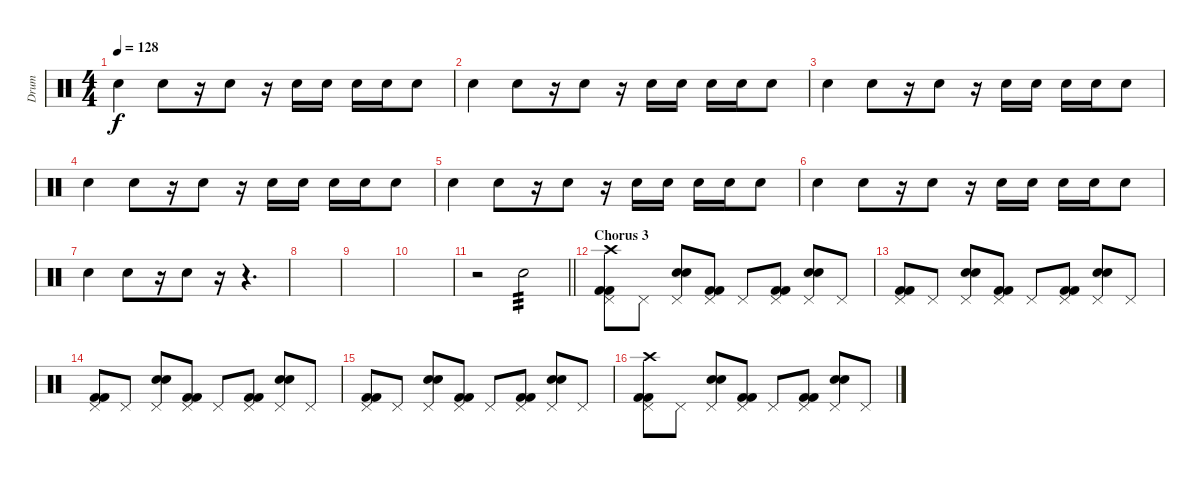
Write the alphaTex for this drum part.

\track ("Drum" "Drum") {instrument percussion}
\staff {score}
\articulation defaults
\ts (4 4)
\tempo 128
\clef neutral
\ks c "Hand Clap (hit)".4{dy f} "Hand Clap (hit)".8
r.16 "Hand Clap (hit)".8 r.16 "Hand Clap (hit)".16 "Hand Clap (hit)".16 "Hand Clap (hit)".16 "Hand Clap (hit)".16 "Hand Clap (hit)".8 |
"Hand Clap (hit)".4 "Hand Clap (hit)".8 r.16 "Hand Clap (hit)".8 r.16 "Hand Clap (hit)".16 "Hand Clap (hit)".16 "Hand Clap (hit)".16 "Hand Clap (hit)".16 "Hand Clap (hit)".8 |
"Hand Clap (hit)".4 "Hand Clap (hit)".8 r.16 "Hand Clap (hit)".8 r.16 "Hand Clap (hit)".16 "Hand Clap (hit)".16 "Hand Clap (hit)".16 "Hand Clap (hit)".16 "Hand Clap (hit)".8 |
"Hand Clap (hit)".4 "Hand Clap (hit)".8 r.16 "Hand Clap (hit)".8 r.16 "Hand Clap (hit)".16 "Hand Clap (hit)".16 "Hand Clap (hit)".16 "Hand Clap (hit)".16 "Hand Clap (hit)".8 |
"Hand Clap (hit)".4 "Hand Clap (hit)".8 r.16 "Hand Clap (hit)".8 r.16 "Hand Clap (hit)".16 "Hand Clap (hit)".16 "Hand Clap (hit)".16 "Hand Clap (hit)".16 "Hand Clap (hit)".8 |
"Hand Clap (hit)".4 "Hand Clap (hit)".8 r.16 "Hand Clap (hit)".8 r.16 "Hand Clap (hit)".16 "Hand Clap (hit)".16 "Hand Clap (hit)".16 "Hand Clap (hit)".16 "Hand Clap (hit)".8 |
"Hand Clap (hit)".4 "Hand Clap (hit)".8 r.16 "Hand Clap (hit)".8 r.16 r.4{d} |
|
|
|
\barLineRight lightlight
r.2 "Snare (hit) 2".2{tp 3} |
\section ("" "Chorus 3")
("Kick (hit) 2" "Kick (hit) 2" "Pedal Hi-Hat (hit)" "Crash high (hit)").8 "Pedal Hi-Hat (hit)".8 ("Snare (hit) 2" "Snare (hit) 2" "Pedal Hi-Hat (hit)").8 ("Kick (hit) 2" "Kick (hit) 2" "Pedal Hi-Hat (hit)").8 "Pedal Hi-Hat (hit)".8 ("Kick (hit) 2" "Kick (hit) 2" "Pedal Hi-Hat (hit)").8 ("Snare (hit) 2" "Snare (hit) 2" "Pedal Hi-Hat (hit)").8 "Pedal Hi-Hat (hit)".8 |
("Kick (hit) 2" "Kick (hit) 2" "Pedal Hi-Hat (hit)").8 "Pedal Hi-Hat (hit)".8 ("Snare (hit) 2" "Snare (hit) 2" "Pedal Hi-Hat (hit)").8 ("Kick (hit) 2" "Kick (hit) 2" "Pedal Hi-Hat (hit)").8 "Pedal Hi-Hat (hit)".8 ("Kick (hit) 2" "Kick (hit) 2" "Pedal Hi-Hat (hit)").8 ("Snare (hit) 2" "Snare (hit) 2" "Pedal Hi-Hat (hit)").8 "Pedal Hi-Hat (hit)".8 |
("Kick (hit) 2" "Kick (hit) 2" "Pedal Hi-Hat (hit)").8 "Pedal Hi-Hat (hit)".8 ("Snare (hit) 2" "Snare (hit) 2" "Pedal Hi-Hat (hit)").8 ("Kick (hit) 2" "Kick (hit) 2" "Pedal Hi-Hat (hit)").8 "Pedal Hi-Hat (hit)".8 ("Kick (hit) 2" "Kick (hit) 2" "Pedal Hi-Hat (hit)").8 ("Snare (hit) 2" "Snare (hit) 2" "Pedal Hi-Hat (hit)").8 "Pedal Hi-Hat (hit)".8 |
("Kick (hit) 2" "Kick (hit) 2" "Pedal Hi-Hat (hit)").8 "Pedal Hi-Hat (hit)".8 ("Snare (hit) 2" "Snare (hit) 2" "Pedal Hi-Hat (hit)").8 ("Kick (hit) 2" "Kick (hit) 2" "Pedal Hi-Hat (hit)").8 "Pedal Hi-Hat (hit)".8 ("Kick (hit) 2" "Kick (hit) 2" "Pedal Hi-Hat (hit)").8 ("Snare (hit) 2" "Snare (hit) 2" "Pedal Hi-Hat (hit)").8 "Pedal Hi-Hat (hit)".8 |
("Kick (hit) 2" "Kick (hit) 2" "Pedal Hi-Hat (hit)" "Crash high (hit)").8 "Pedal Hi-Hat (hit)".8 ("Snare (hit) 2" "Snare (hit) 2" "Pedal Hi-Hat (hit)").8 ("Kick (hit) 2" "Kick (hit) 2" "Pedal Hi-Hat (hit)").8 "Pedal Hi-Hat (hit)".8 ("Kick (hit) 2" "Kick (hit) 2" "Pedal Hi-Hat (hit)").8 ("Snare (hit) 2" "Snare (hit) 2" "Pedal Hi-Hat (hit)").8 "Pedal Hi-Hat (hit)".8
